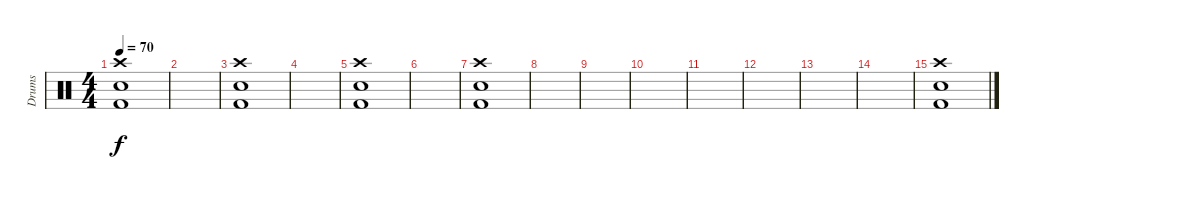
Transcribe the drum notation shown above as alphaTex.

\track ("Drums" "Drums") {instrument percussion}
\staff {score}
\articulation defaults
\ts (4 4)
\tempo 70
\clef neutral
\ks c
("Crash high (hit)" "Snare (hit) 2" "Kick (hit) 2").1{dy f} |
|
("Crash high (hit)" "Snare (hit) 2" "Kick (hit) 2").1 |
|
("Crash high (hit)" "Snare (hit) 2" "Kick (hit) 2").1 |
|
("Crash high (hit)" "Snare (hit) 2" "Kick (hit) 2").1 |
|
|
|
|
|
|
|
("Crash high (hit)" "Snare (hit) 2" "Kick (hit) 2").1
